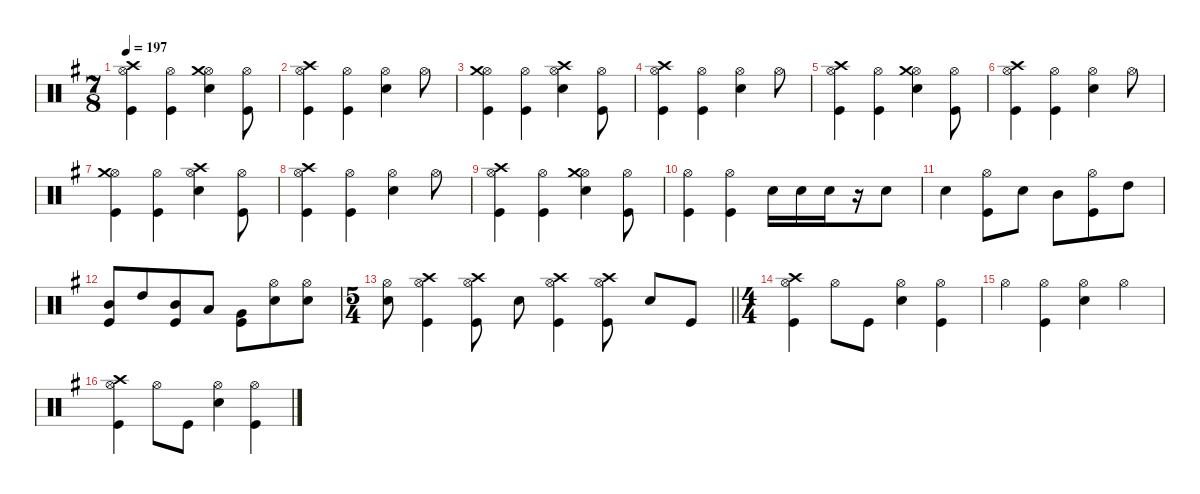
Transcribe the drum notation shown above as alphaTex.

\defaultSystemsLayout 4
\hideDynamics
\bracketExtendMode nobrackets
\singleTrackTrackNamePolicy hidden
\multiTrackTrackNamePolicy hidden
\firstSystemTrackNameMode fullname
\firstSystemTrackNameOrientation horizontal
\otherSystemsTrackNameOrientation horizontal
\track ("Drums" "drm.") {defaultSystemsLayout 4 instrument percussion}
\staff {score}
\articulation defaults
\ts (7 8)
\tempo 197
\clef neutral
\ks eminor
("Hi-Hat (open)"{acc forcenatural} "Crash high (hit)"{acc forcenatural} "Kick (hit)"{acc forcenatural}).4{dy f beam Down} ("Hi-Hat (open)"{acc forcenatural} "Kick (hit)"{acc forcenatural}).4{beam Down} ("Hi-Hat (open)"{acc forcenatural} "Crash medium (hit)"{acc forcenatural} "Snare (hit) 2"{acc forcenatural}).4{beam Down} ("Hi-Hat (open)"{acc forcenatural} "Kick (hit)"{acc forcenatural}).8{beam Down} |
("Hi-Hat (open)"{acc forcenatural} "Crash high (hit)"{acc forcenatural} "Kick (hit)"{acc forcenatural}).4{beam Down} ("Hi-Hat (open)"{acc forcenatural} "Kick (hit)"{acc forcenatural}).4{beam Down} ("Hi-Hat (open)"{acc forcenatural} "Snare (hit) 2"{acc forcenatural}).4{beam Down} "Hi-Hat (open)"{acc forcenatural}.8{beam Down} |
("Hi-Hat (open)"{acc forcenatural} "Crash medium (hit)"{acc forcenatural} "Kick (hit)"{acc forcenatural}).4{beam Down} ("Hi-Hat (open)"{acc forcenatural} "Kick (hit)"{acc forcenatural}).4{beam Down} ("Hi-Hat (open)"{acc forcenatural} "Crash high (hit)"{acc forcenatural} "Snare (hit) 2"{acc forcenatural}).4{beam Down} ("Hi-Hat (open)"{acc forcenatural} "Kick (hit)"{acc forcenatural}).8{beam Down} |
("Hi-Hat (open)"{acc forcenatural} "Crash high (hit)"{acc forcenatural} "Kick (hit)"{acc forcenatural}).4{beam Down} ("Hi-Hat (open)"{acc forcenatural} "Kick (hit)"{acc forcenatural}).4{beam Down} ("Hi-Hat (open)"{acc forcenatural} "Snare (hit) 2"{acc forcenatural}).4{beam Down} "Hi-Hat (open)"{acc forcenatural}.8{beam Down} |
("Hi-Hat (open)"{acc forcenatural} "Crash high (hit)"{acc forcenatural} "Kick (hit)"{acc forcenatural}).4{beam Down} ("Hi-Hat (open)"{acc forcenatural} "Kick (hit)"{acc forcenatural}).4{beam Down} ("Hi-Hat (open)"{acc forcenatural} "Crash medium (hit)"{acc forcenatural} "Snare (hit) 2"{acc forcenatural}).4{beam Down} ("Hi-Hat (open)"{acc forcenatural} "Kick (hit)"{acc forcenatural}).8{beam Down} |
("Hi-Hat (open)"{acc forcenatural} "Crash high (hit)"{acc forcenatural} "Kick (hit)"{acc forcenatural}).4{beam Down} ("Hi-Hat (open)"{acc forcenatural} "Kick (hit)"{acc forcenatural}).4{beam Down} ("Hi-Hat (open)"{acc forcenatural} "Snare (hit) 2"{acc forcenatural}).4{beam Down} "Hi-Hat (open)"{acc forcenatural}.8{beam Down} |
("Hi-Hat (open)"{acc forcenatural} "Crash medium (hit)"{acc forcenatural} "Kick (hit)"{acc forcenatural}).4{beam Down} ("Hi-Hat (open)"{acc forcenatural} "Kick (hit)"{acc forcenatural}).4{beam Down} ("Hi-Hat (open)"{acc forcenatural} "Crash high (hit)"{acc forcenatural} "Snare (hit) 2"{acc forcenatural}).4{beam Down} ("Hi-Hat (open)"{acc forcenatural} "Kick (hit)"{acc forcenatural}).8{beam Down} |
("Hi-Hat (open)"{acc forcenatural} "Crash high (hit)"{acc forcenatural} "Kick (hit)"{acc forcenatural}).4{beam Down} ("Hi-Hat (open)"{acc forcenatural} "Kick (hit)"{acc forcenatural}).4{beam Down} ("Hi-Hat (open)"{acc forcenatural} "Snare (hit) 2"{acc forcenatural}).4{beam Down} "Hi-Hat (open)"{acc forcenatural}.8{beam Down} |
("Hi-Hat (open)"{acc forcenatural} "Crash high (hit)"{acc forcenatural} "Kick (hit)"{acc forcenatural}).4{beam Down} ("Hi-Hat (open)"{acc forcenatural} "Kick (hit)"{acc forcenatural}).4{beam Down} ("Hi-Hat (open)"{acc forcenatural} "Crash medium (hit)"{acc forcenatural} "Snare (hit) 2"{acc forcenatural}).4{beam Down} ("Hi-Hat (open)"{acc forcenatural} "Kick (hit)"{acc forcenatural}).8{beam Down} |
("Hi-Hat (open)"{acc forcenatural} "Kick (hit)"{acc forcenatural}).4{beam Down} ("Hi-Hat (open)"{acc forcenatural} "Kick (hit)"{acc forcenatural}).4{beam Down} "Snare (hit) 2"{acc forcenatural}.16{dy mp beam Down} "Snare (hit) 2"{acc forcenatural}.16{beam Down} "Snare (hit) 2"{acc forcenatural}.16{dy mf beam Down} r.16{beam Down} "Snare (hit) 2"{acc forcenatural}.8{dy f beam Down} |
"Snare (hit) 2"{acc forcenatural}.4{beam Down} ("Hi-Hat (open)"{acc forcenatural} "Kick (hit)"{acc forcenatural}).8{beam Down} "Snare (hit) 2"{acc forcenatural}.8{beam Down} "Mid Tom (hit)"{acc forcenatural}.8{beam Down} ("Hi-Hat (open)"{acc forcenatural} "Kick (hit)"{acc forcenatural}).8{beam Down} "High Tom (hit)"{acc forcenatural}.8{beam Down} |
("Mid Tom (hit)"{acc forcenatural} "Kick (hit)"{acc forcenatural}).8{beam Up} "High Tom (hit)"{acc forcenatural}.8{beam Up} ("Mid Tom (hit)"{acc forcenatural} "Kick (hit)"{acc forcenatural}).8{beam Up} "Low Tom (hit)"{acc forcenatural}.8{beam Up} ("Very Low Tom (hit)"{acc forcenatural} "Kick (hit)"{acc forcenatural}).8{beam Down} ("Hi-Hat (open)"{acc forcenatural} "Snare (hit) 2"{acc forcenatural}).8{beam Down} ("Hi-Hat (open)"{acc forcenatural} "Snare (hit) 2"{acc forcenatural}).8{beam Down} |
\ts (5 4)
\beaming (8 2 2 3)
\barLineRight lightlight
("Hi-Hat (open)"{acc forcenatural} "Snare (hit) 2"{acc forcenatural}).8{beam Down} ("Crash high (hit)"{acc forcenatural} "Hi-Hat (open)"{acc forcenatural} "Kick (hit)"{acc forcenatural}).4{beam Down} ("Crash high (hit)"{acc forcenatural} "Hi-Hat (open)"{acc forcenatural} "Kick (hit)"{acc forcenatural}).8{beam Down beam split} "Snare (hit) 2"{acc forcenatural}.8{beam Down} ("Crash high (hit)"{acc forcenatural} "Hi-Hat (open)"{acc forcenatural} "Kick (hit)"{acc forcenatural}).4{beam Down} ("Crash high (hit)"{acc forcenatural} "Hi-Hat (open)"{acc forcenatural} "Kick (hit)"{acc forcenatural}).8{beam Down beam split} "Snare (hit) 2"{acc forcenatural}.8{beam Up beam merge} "Kick (hit)"{acc forcenatural}.8{beam Up} |
\ts (4 4)
\beaming (8 2 2 2 2)
("Crash high (hit)"{acc forcenatural} "Hi-Hat (open)"{acc forcenatural} "Kick (hit)"{acc forcenatural}).4{beam Down} "Hi-Hat (open)"{acc forcenatural}.8{beam Down} "Kick (hit)"{acc forcenatural}.8{beam Down} ("Hi-Hat (open)"{acc forcenatural} "Snare (hit) 2"{acc forcenatural}).4{beam Down} ("Hi-Hat (open)"{acc forcenatural} "Kick (hit)"{acc forcenatural}).4{beam Down} |
"Hi-Hat (open)"{acc forcenatural}.4{beam Down} ("Hi-Hat (open)"{acc forcenatural} "Kick (hit)"{acc forcenatural}).4{beam Down} ("Hi-Hat (open)"{acc forcenatural} "Snare (hit) 2"{acc forcenatural}).4{beam Down} "Hi-Hat (open)"{acc forcenatural}.4{beam Down} |
("Crash high (hit)"{acc forcenatural} "Hi-Hat (open)"{acc forcenatural} "Kick (hit)"{acc forcenatural}).4{beam Down} "Hi-Hat (open)"{acc forcenatural}.8{beam Down} "Kick (hit)"{acc forcenatural}.8{beam Down} ("Hi-Hat (open)"{acc forcenatural} "Snare (hit) 2"{acc forcenatural}).4{beam Down} ("Hi-Hat (open)"{acc forcenatural} "Kick (hit)"{acc forcenatural}).4{beam Down}
